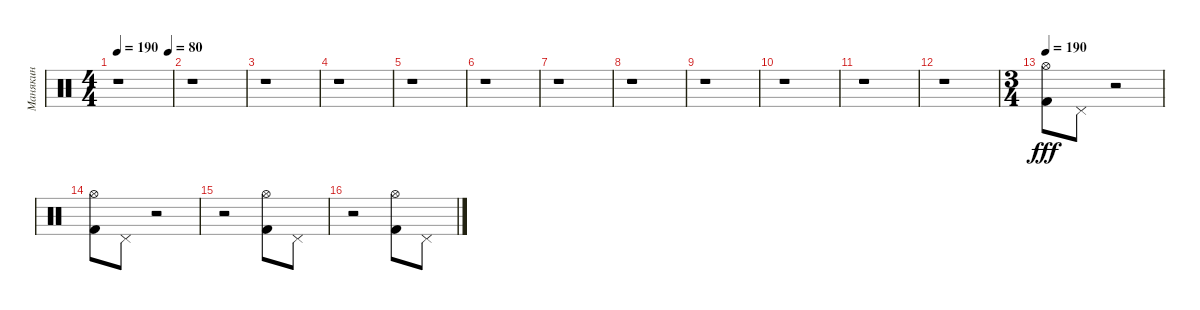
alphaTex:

\track ("Манякин" "Манякин") {instrument percussion}
\staff {score}
\articulation defaults
\ts (4 4)
\tempo 190
\tempo (80 0.9375)
\tempo 190
\clef neutral
\ks c
r.1{dy fff} |
r.1 |
r.1 |
r.1 |
r.1 |
r.1 |
r.1 |
r.1 |
r.1 |
r.1 |
r.1 |
r.1 |
\ts (3 4)
\tempo 190
("Kick (hit) 2" "Hi-Hat (open)").8 "Pedal Hi-Hat (hit)".8 r.2 |
("Kick (hit) 2" "Hi-Hat (open)").8 "Pedal Hi-Hat (hit)".8 r.2 |
r.2 ("Hi-Hat (open)" "Kick (hit) 2").8 "Pedal Hi-Hat (hit)".8 |
r.2 ("Kick (hit) 2" "Hi-Hat (open)").8 "Pedal Hi-Hat (hit)".8
